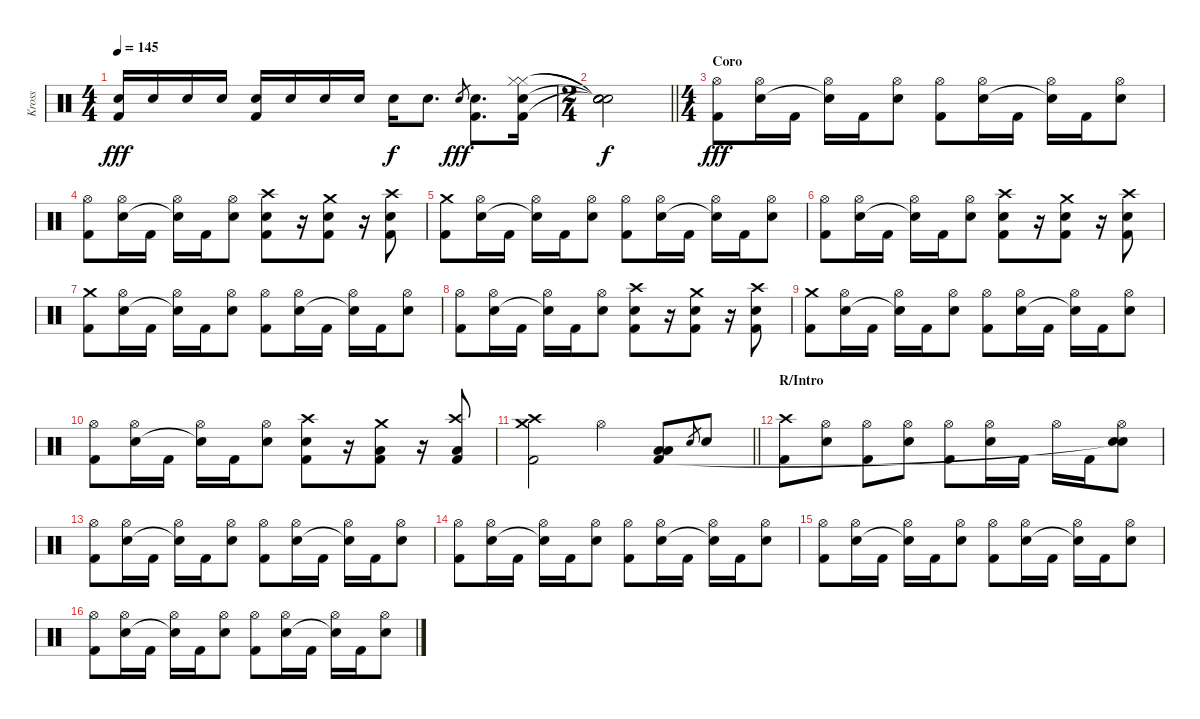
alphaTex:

\track ("Kross" "Kross") {instrument percussion}
\staff {score}
\articulation defaults
\ts (4 4)
\tempo 145
\clef neutral
\ks c
("Electric Snare (hit)" "Kick (hit) 2").16{dy fff} "Electric Snare (hit)".16 "Electric Snare (hit)".16 "Electric Snare (hit)".16 ("Electric Snare (hit)" "Kick (hit) 2").16 "Electric Snare (hit)".16 "Electric Snare (hit)".16 "Electric Snare (hit)".16 "Electric Snare (hit)".16{dy f} "Electric Snare (hit)".8{d} "Electric Snare (hit)".8{gr dy fff} ("Electric Snare (hit)" "Kick (hit) 2").8{d} ("Hi-Hat (closed)" "Hi-Hat (closed)" "Electric Snare (hit)" "Kick (hit) 2").16 |
\ts (2 4)
\barLineRight lightlight
("Snare (hit)"{t} "Snare (hit)"{t} "Snare (hit)"{t} "Snare (hit)"{t}).2{dy f} |
\ts (4 4)
\section ("" "Coro")
("Hi-Hat (open)" "Kick (hit) 2").8{dy fff} ("Hi-Hat (open)" "Electric Snare (hit)").16 "Kick (hit) 2".16 ("Hi-Hat (open)" "Snare (hit)"{t}).16 "Kick (hit) 2".16 ("Hi-Hat (open)" "Electric Snare (hit)").8 ("Hi-Hat (open)" "Kick (hit) 2").8 ("Hi-Hat (open)" "Electric Snare (hit)").16 "Kick (hit) 2".16 ("Hi-Hat (open)" "Snare (hit)"{t}).16 "Kick (hit) 2".16 ("Hi-Hat (open)" "Electric Snare (hit)").8 |
("Hi-Hat (open)" "Kick (hit) 2").8 ("Hi-Hat (open)" "Electric Snare (hit)").16 "Kick (hit) 2".16 ("Hi-Hat (open)" "Snare (hit)"{t}).16 "Kick (hit) 2".16 ("Hi-Hat (open)" "Electric Snare (hit)").8 ("Crash high (hit)" "Electric Snare (hit)" "Kick (hit) 2").8 r.16 ("Crash medium (hit)" "Electric Snare (hit)" "Kick (hit) 2").8 r.16 ("Crash high (hit)" "Electric Snare (hit)" "Kick (hit) 2").8 |
("Crash medium (hit)" "Kick (hit) 2").8 ("Hi-Hat (open)" "Electric Snare (hit)").16 "Kick (hit) 2".16 ("Hi-Hat (open)" "Snare (hit)"{t}).16 "Kick (hit) 2".16 ("Hi-Hat (open)" "Electric Snare (hit)").8 ("Hi-Hat (open)" "Kick (hit) 2").8 ("Hi-Hat (open)" "Electric Snare (hit)").16 "Kick (hit) 2".16 ("Hi-Hat (open)" "Snare (hit)"{t}).16 "Kick (hit) 2".16 ("Hi-Hat (open)" "Electric Snare (hit)").8 |
("Hi-Hat (open)" "Kick (hit) 2").8 ("Hi-Hat (open)" "Electric Snare (hit)").16 "Kick (hit) 2".16 ("Hi-Hat (open)" "Snare (hit)"{t}).16 "Kick (hit) 2".16 ("Hi-Hat (open)" "Electric Snare (hit)").8 ("Crash high (hit)" "Electric Snare (hit)" "Kick (hit) 2").8 r.16 ("Crash medium (hit)" "Electric Snare (hit)" "Kick (hit) 2").8 r.16 ("Crash high (hit)" "Electric Snare (hit)" "Kick (hit) 2").8 |
("Crash medium (hit)" "Kick (hit) 2").8 ("Hi-Hat (open)" "Electric Snare (hit)").16 "Kick (hit) 2".16 ("Hi-Hat (open)" "Snare (hit)"{t}).16 "Kick (hit) 2".16 ("Hi-Hat (open)" "Electric Snare (hit)").8 ("Hi-Hat (open)" "Kick (hit) 2").8 ("Hi-Hat (open)" "Electric Snare (hit)").16 "Kick (hit) 2".16 ("Hi-Hat (open)" "Snare (hit)"{t}).16 "Kick (hit) 2".16 ("Hi-Hat (open)" "Electric Snare (hit)").8 |
("Hi-Hat (open)" "Kick (hit) 2").8 ("Hi-Hat (open)" "Electric Snare (hit)").16 "Kick (hit) 2".16 ("Hi-Hat (open)" "Snare (hit)"{t}).16 "Kick (hit) 2".16 ("Hi-Hat (open)" "Electric Snare (hit)").8 ("Crash high (hit)" "Electric Snare (hit)" "Kick (hit) 2").8 r.16 ("Crash medium (hit)" "Electric Snare (hit)" "Kick (hit) 2").8 r.16 ("Crash high (hit)" "Electric Snare (hit)" "Kick (hit) 2").8 |
("Crash medium (hit)" "Kick (hit) 2").8 ("Hi-Hat (open)" "Electric Snare (hit)").16 "Kick (hit) 2".16 ("Hi-Hat (open)" "Snare (hit)"{t}).16 "Kick (hit) 2".16 ("Hi-Hat (open)" "Electric Snare (hit)").8 ("Hi-Hat (open)" "Kick (hit) 2").8 ("Hi-Hat (open)" "Electric Snare (hit)").16 "Kick (hit) 2".16 ("Hi-Hat (open)" "Snare (hit)"{t}).16 "Kick (hit) 2".16 ("Hi-Hat (open)" "Electric Snare (hit)").8 |
("Hi-Hat (open)" "Kick (hit) 2").8 ("Hi-Hat (open)" "Electric Snare (hit)").16 "Kick (hit) 2".16 ("Hi-Hat (open)" "Snare (hit)"{t}).16 "Kick (hit) 2".16 ("Hi-Hat (open)" "Electric Snare (hit)").8 ("Crash high (hit)" "Electric Snare (hit)" "Kick (hit) 2").8 r.16 ("Crash medium (hit)" "Low Tom (hit)" "Kick (hit) 2").8 r.16 ("Crash high (hit)" "Low Tom (hit)" "Kick (hit) 2").8 |
\barLineRight lightlight
("Crash high (hit)" "Crash medium (hit)" "Kick (hit) 2").2 "Hi-Hat (open)".4 ("Low Tom (hit)" "Low Floor Tom (hit)" "Kick (hit) 2").8 "Electric Snare (hit)".8{gr} "Electric Snare (hit)".8 |
\section ("" "R/Intro")
("Crash high (hit)" "Kick (hit) 2").8 ("Hi-Hat (open)" "Electric Snare (hit)").8 ("Hi-Hat (open)" "Kick (hit) 2").8 ("Hi-Hat (open)" "Electric Snare (hit)").8 ("Hi-Hat (open)" "Kick (hit) 2").8 ("Hi-Hat (open)" "Electric Snare (hit)").16 "Kick (hit) 2".16 "Hi-Hat (open)".16 "Kick (hit) 2".16 ("Hi-Hat (open)" "Electric Snare (hit)" "Snare (hit)"{t}).8 |
("Hi-Hat (open)" "Kick (hit) 2").8 ("Hi-Hat (open)" "Electric Snare (hit)").16 "Kick (hit) 2".16 ("Hi-Hat (open)" "Snare (hit)"{t}).16 "Kick (hit) 2".16 ("Hi-Hat (open)" "Electric Snare (hit)").8 ("Hi-Hat (open)" "Kick (hit) 2").8 ("Hi-Hat (open)" "Electric Snare (hit)").16 "Kick (hit) 2".16 ("Hi-Hat (open)" "Snare (hit)"{t}).16 "Kick (hit) 2".16 ("Hi-Hat (open)" "Electric Snare (hit)").8 |
("Hi-Hat (open)" "Kick (hit) 2").8 ("Hi-Hat (open)" "Electric Snare (hit)").16 "Kick (hit) 2".16 ("Hi-Hat (open)" "Snare (hit)"{t}).16 "Kick (hit) 2".16 ("Hi-Hat (open)" "Electric Snare (hit)").8 ("Hi-Hat (open)" "Kick (hit) 2").8 ("Hi-Hat (open)" "Electric Snare (hit)").16 "Kick (hit) 2".16 ("Hi-Hat (open)" "Snare (hit)"{t}).16 "Kick (hit) 2".16 ("Hi-Hat (open)" "Electric Snare (hit)").8 |
("Hi-Hat (open)" "Kick (hit) 2").8 ("Hi-Hat (open)" "Electric Snare (hit)").16 "Kick (hit) 2".16 ("Hi-Hat (open)" "Snare (hit)"{t}).16 "Kick (hit) 2".16 ("Hi-Hat (open)" "Electric Snare (hit)").8 ("Hi-Hat (open)" "Kick (hit) 2").8 ("Hi-Hat (open)" "Electric Snare (hit)").16 "Kick (hit) 2".16 ("Hi-Hat (open)" "Snare (hit)"{t}).16 "Kick (hit) 2".16 ("Hi-Hat (open)" "Electric Snare (hit)").8 |
("Hi-Hat (open)" "Kick (hit) 2").8 ("Hi-Hat (open)" "Electric Snare (hit)").16 "Kick (hit) 2".16 ("Hi-Hat (open)" "Snare (hit)"{t}).16 "Kick (hit) 2".16 ("Hi-Hat (open)" "Electric Snare (hit)").8 ("Hi-Hat (open)" "Kick (hit) 2").8 ("Hi-Hat (open)" "Electric Snare (hit)").16 "Kick (hit) 2".16 ("Hi-Hat (open)" "Snare (hit)"{t}).16 "Kick (hit) 2".16 ("Hi-Hat (open)" "Electric Snare (hit)").8
